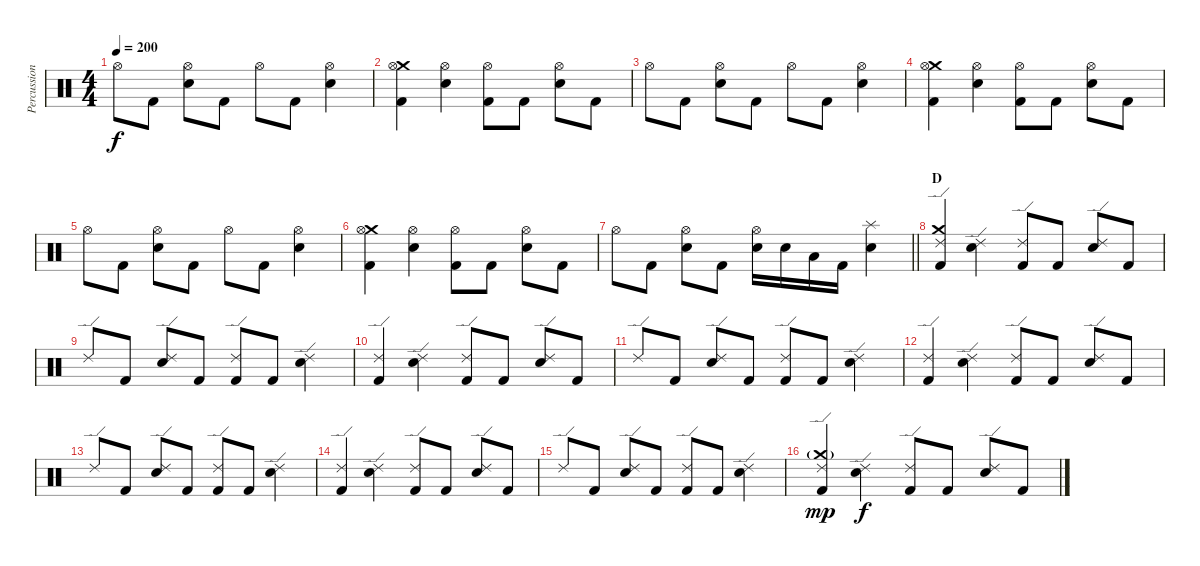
\track ("Percussion" "Percussion") {instrument percussion}
\staff {score}
\articulation defaults
\ts (4 4)
\tempo 200
\clef neutral
\ks c "Hi-Hat (open)".8{dy f} "Kick (hit) 2".8
("Hi-Hat (open)" "Electric Snare (hit)").8 "Kick (hit) 2".8 "Hi-Hat (open)".8 "Kick (hit) 2".8 ("Hi-Hat (open)" "Electric Snare (hit)").4 |
("Crash medium (hit)" "Hi-Hat (open)" "Kick (hit) 2").4 ("Hi-Hat (open)" "Electric Snare (hit)").4 ("Hi-Hat (open)" "Kick (hit) 2").8 "Kick (hit) 2".8 ("Hi-Hat (open)" "Electric Snare (hit)").8 "Kick (hit) 2".8 |
"Hi-Hat (open)".8 "Kick (hit) 2".8 ("Hi-Hat (open)" "Electric Snare (hit)").8 "Kick (hit) 2".8 "Hi-Hat (open)".8 "Kick (hit) 2".8 ("Hi-Hat (open)" "Electric Snare (hit)").4 |
("Crash medium (hit)" "Hi-Hat (open)" "Kick (hit) 2").4 ("Hi-Hat (open)" "Electric Snare (hit)").4 ("Hi-Hat (open)" "Kick (hit) 2").8 "Kick (hit) 2".8 ("Hi-Hat (open)" "Electric Snare (hit)").8 "Kick (hit) 2".8 |
"Hi-Hat (open)".8 "Kick (hit) 2".8 ("Hi-Hat (open)" "Electric Snare (hit)").8 "Kick (hit) 2".8 "Hi-Hat (open)".8 "Kick (hit) 2".8 ("Hi-Hat (open)" "Electric Snare (hit)").4 |
("Crash medium (hit)" "Hi-Hat (open)" "Kick (hit) 2").4 ("Hi-Hat (open)" "Electric Snare (hit)").4 ("Hi-Hat (open)" "Kick (hit) 2").8 "Kick (hit) 2".8 ("Hi-Hat (open)" "Electric Snare (hit)").8 "Kick (hit) 2".8 |
\barLineRight lightlight "Hi-Hat (open)".8 "Kick (hit) 2".8
("Hi-Hat (open)" "Electric Snare (hit)").8 "Kick (hit) 2".8 ("Hi-Hat (open)" "Electric Snare (hit)").16 "Electric Snare (hit)".16 "Low Tom (hit)".16 "Kick (hit) 2".16 ("Splash (hit)" "Electric Snare (hit)").4 |
\section ("" "D")
("Crash medium (hit)" "Ride (edge) 2" "Kick (hit) 2").4 ("Ride (edge) 2" "Electric Snare (hit)").4 ("Ride (edge) 2" "Kick (hit) 2").8 "Kick (hit) 2".8 ("Ride (edge) 2" "Electric Snare (hit)").8 "Kick (hit) 2".8 |
"Ride (edge) 2".8 "Kick (hit) 2".8 ("Ride (edge) 2" "Electric Snare (hit)").8 "Kick (hit) 2".8 ("Ride (edge) 2" "Kick (hit) 2").8 "Kick (hit) 2".8 ("Ride (edge) 2" "Electric Snare (hit)").4 |
("Ride (edge) 2" "Kick (hit) 2").4 ("Ride (edge) 2" "Electric Snare (hit)").4 ("Ride (edge) 2" "Kick (hit) 2").8 "Kick (hit) 2".8 ("Ride (edge) 2" "Electric Snare (hit)").8 "Kick (hit) 2".8 |
"Ride (edge) 2".8 "Kick (hit) 2".8 ("Ride (edge) 2" "Electric Snare (hit)").8 "Kick (hit) 2".8 ("Ride (edge) 2" "Kick (hit) 2").8 "Kick (hit) 2".8 ("Ride (edge) 2" "Electric Snare (hit)").4 |
("Ride (edge) 2" "Kick (hit) 2").4 ("Ride (edge) 2" "Electric Snare (hit)").4 ("Ride (edge) 2" "Kick (hit) 2").8 "Kick (hit) 2".8 ("Ride (edge) 2" "Electric Snare (hit)").8 "Kick (hit) 2".8 |
"Ride (edge) 2".8 "Kick (hit) 2".8 ("Ride (edge) 2" "Electric Snare (hit)").8 "Kick (hit) 2".8 ("Ride (edge) 2" "Kick (hit) 2").8 "Kick (hit) 2".8 ("Ride (edge) 2" "Electric Snare (hit)").4 |
("Ride (edge) 2" "Kick (hit) 2").4 ("Ride (edge) 2" "Electric Snare (hit)").4 ("Ride (edge) 2" "Kick (hit) 2").8 "Kick (hit) 2".8 ("Ride (edge) 2" "Electric Snare (hit)").8 "Kick (hit) 2".8 |
"Ride (edge) 2".8 "Kick (hit) 2".8 ("Ride (edge) 2" "Electric Snare (hit)").8 "Kick (hit) 2".8 ("Ride (edge) 2" "Kick (hit) 2").8 "Kick (hit) 2".8 ("Ride (edge) 2" "Electric Snare (hit)").4 |
("Crash medium (hit)"{g} "Ride (edge) 2" "Kick (hit) 2").4{dy mp} ("Ride (edge) 2" "Electric Snare (hit)").4{dy f} ("Ride (edge) 2" "Kick (hit) 2").8 "Kick (hit) 2".8 ("Ride (edge) 2" "Electric Snare (hit)").8 "Kick (hit) 2".8
